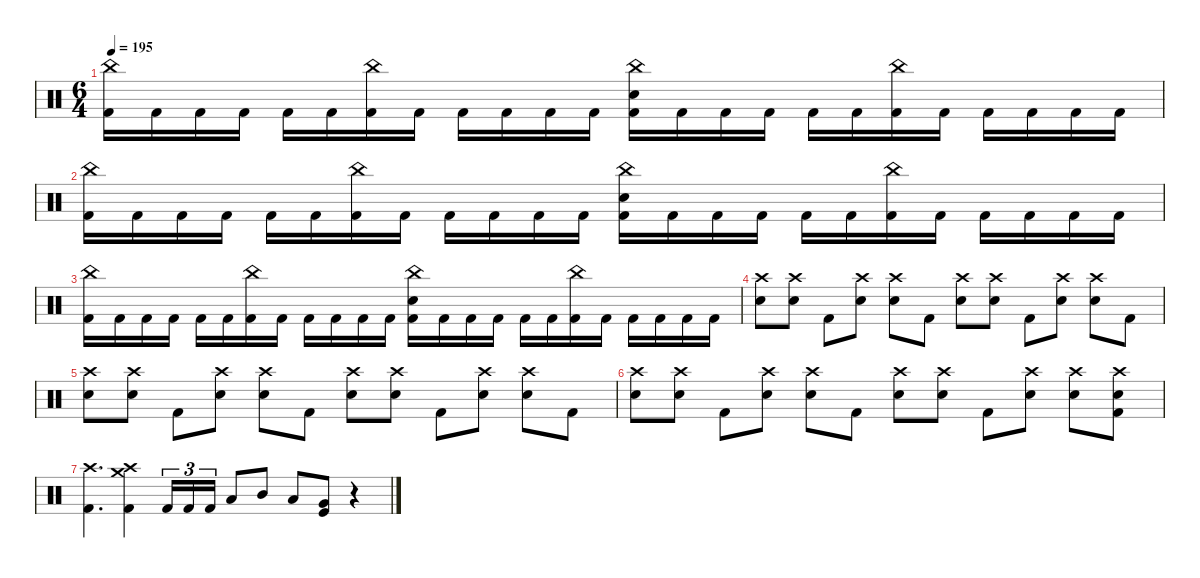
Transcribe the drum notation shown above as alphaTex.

\defaultSystemsLayout 4
\hideDynamics
\bracketExtendMode nobrackets
\singleTrackTrackNamePolicy hidden
\multiTrackTrackNamePolicy hidden
\firstSystemTrackNameMode fullname
\firstSystemTrackNameOrientation horizontal
\otherSystemsTrackNameOrientation horizontal
\track ("Drums" "drm.") {instrument percussion}
\staff {score}
\articulation defaults
\ts (6 4)
\tempo 195
\clef neutral
\ks c
("China (hit)" "Kick (hit) 2").16{dy f beam Down} "Kick (hit) 2".16{beam Down} "Kick (hit) 2".16{beam Down} "Kick (hit) 2".16{beam Down} "Kick (hit) 2".16{beam Down} "Kick (hit) 2".16{beam Down} ("China (hit)" "Kick (hit) 2").16{beam Down} "Kick (hit) 2".16{beam Down} "Kick (hit) 2".16{beam Down} "Kick (hit) 2".16{beam Down} "Kick (hit) 2".16{beam Down} "Kick (hit) 2".16{beam Down} ("China (hit)" "Snare (hit) 2" "Kick (hit) 2").16{beam Down} "Kick (hit) 2".16{beam Down} "Kick (hit) 2".16{beam Down} "Kick (hit) 2".16{beam Down} "Kick (hit) 2".16{beam Down} "Kick (hit) 2".16{beam Down} ("China (hit)" "Kick (hit) 2").16{beam Down} "Kick (hit) 2".16{beam Down} "Kick (hit) 2".16{beam Down} "Kick (hit) 2".16{beam Down} "Kick (hit) 2".16{beam Down} "Kick (hit) 2".16{beam Down} |
("China (hit)" "Kick (hit) 2").16{beam Down} "Kick (hit) 2".16{beam Down} "Kick (hit) 2".16{beam Down} "Kick (hit) 2".16{beam Down} "Kick (hit) 2".16{beam Down} "Kick (hit) 2".16{beam Down} ("China (hit)" "Kick (hit) 2").16{beam Down} "Kick (hit) 2".16{beam Down} "Kick (hit) 2".16{beam Down} "Kick (hit) 2".16{beam Down} "Kick (hit) 2".16{beam Down} "Kick (hit) 2".16{beam Down} ("China (hit)" "Snare (hit) 2" "Kick (hit) 2").16{beam Down} "Kick (hit) 2".16{beam Down} "Kick (hit) 2".16{beam Down} "Kick (hit) 2".16{beam Down} "Kick (hit) 2".16{beam Down} "Kick (hit) 2".16{beam Down} ("China (hit)" "Kick (hit) 2").16{beam Down} "Kick (hit) 2".16{beam Down} "Kick (hit) 2".16{beam Down} "Kick (hit) 2".16{beam Down} "Kick (hit) 2".16{beam Down} "Kick (hit) 2".16{beam Down} |
("China (hit)" "Kick (hit) 2").16{beam Down} "Kick (hit) 2".16{beam Down} "Kick (hit) 2".16{beam Down} "Kick (hit) 2".16{beam Down} "Kick (hit) 2".16{beam Down} "Kick (hit) 2".16{beam Down} ("China (hit)" "Kick (hit) 2").16{beam Down} "Kick (hit) 2".16{beam Down} "Kick (hit) 2".16{beam Down} "Kick (hit) 2".16{beam Down} "Kick (hit) 2".16{beam Down} "Kick (hit) 2".16{beam Down} ("China (hit)" "Snare (hit) 2" "Kick (hit) 2").16{beam Down} "Kick (hit) 2".16{beam Down} "Kick (hit) 2".16{beam Down} "Kick (hit) 2".16{beam Down} "Kick (hit) 2".16{beam Down} "Kick (hit) 2".16{beam Down} ("China (hit)" "Kick (hit) 2").16{beam Down} "Kick (hit) 2".16{beam Down} "Kick (hit) 2".16{beam Down} "Kick (hit) 2".16{beam Down} "Kick (hit) 2".16{beam Down} "Kick (hit) 2".16{beam Down} |
("Crash high (hit)" "Snare (hit) 2").8{beam Down} ("Crash high (hit)" "Snare (hit) 2").8{beam Down} "Kick (hit) 2".8{beam Down} ("Crash high (hit)" "Snare (hit) 2").8{beam Down} ("Crash high (hit)" "Snare (hit) 2").8{beam Down} "Kick (hit) 2".8{beam Down} ("Crash high (hit)" "Snare (hit) 2").8{beam Down} ("Crash high (hit)" "Snare (hit) 2").8{beam Down} "Kick (hit) 2".8{beam Down} ("Crash high (hit)" "Snare (hit) 2").8{beam Down} ("Crash high (hit)" "Snare (hit) 2").8{beam Down} "Kick (hit) 2".8{beam Down} |
("Crash high (hit)" "Snare (hit) 2").8{beam Down} ("Crash high (hit)" "Snare (hit) 2").8{beam Down} "Kick (hit) 2".8{beam Down} ("Crash high (hit)" "Snare (hit) 2").8{beam Down} ("Crash high (hit)" "Snare (hit) 2").8{beam Down} "Kick (hit) 2".8{beam Down} ("Crash high (hit)" "Snare (hit) 2").8{beam Down} ("Crash high (hit)" "Snare (hit) 2").8{beam Down} "Kick (hit) 2".8{beam Down} ("Crash high (hit)" "Snare (hit) 2").8{beam Down} ("Crash high (hit)" "Snare (hit) 2").8{beam Down} "Kick (hit) 2".8{beam Down} |
("Crash high (hit)" "Snare (hit) 2").8{beam Down} ("Crash high (hit)" "Snare (hit) 2").8{beam Down} "Kick (hit) 2".8{beam Down} ("Crash high (hit)" "Snare (hit) 2").8{beam Down} ("Crash high (hit)" "Snare (hit) 2").8{beam Down} "Kick (hit) 2".8{beam Down} ("Crash high (hit)" "Snare (hit) 2").8{beam Down} ("Crash high (hit)" "Snare (hit) 2").8{beam Down} "Kick (hit) 2".8{beam Down} ("Crash high (hit)" "Snare (hit) 2").8{beam Down} ("Crash high (hit)" "Snare (hit) 2").8{beam Down} ("Crash high (hit)" "Snare (hit) 2" "Kick (hit) 2").8{beam Down} |
("Crash high (hit)" "Kick (hit) 2").4{d beam Down} ("Crash high (hit)" "Crash medium (hit)" "Kick (hit) 2").4{beam Down} "Kick (hit) 2".16{tu (3 2) beam Up} "Kick (hit) 2".16{tu (3 2) beam Up} "Kick (hit) 2".16{tu (3 2) beam Up} "Low Tom (hit)".8{dy fff beam Up} "Mid Tom (hit)".8{beam Up} "Low Tom (hit)".8{beam Up} ("Very Low Tom (hit)" "Kick (hit)").8{beam Up} r.4{beam Up}
